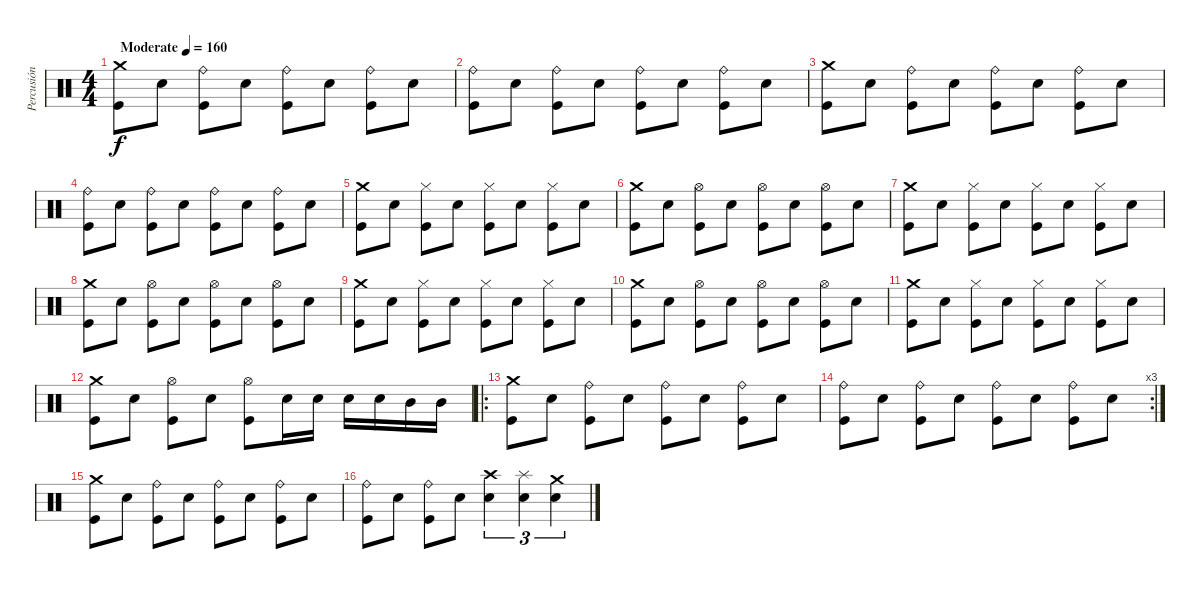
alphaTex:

\track ("Percusión" "Percusión") {instrument percussion}
\staff {score}
\articulation defaults
\ts (4 4)
\tempo (160 "Moderate")
\clef neutral
\ks c
("Kick (hit)" "Crash medium (hit)").8{dy f} "Snare (hit) 2".8 ("Kick (hit)" "Ride (bell)").8 "Snare (hit) 2".8 ("Kick (hit)" "Ride (bell)").8 "Snare (hit) 2".8 ("Kick (hit)" "Ride (bell)").8 "Snare (hit) 2".8 |
("Kick (hit)" "Ride (bell)").8 "Snare (hit) 2".8 ("Kick (hit)" "Ride (bell)").8 "Snare (hit) 2".8 ("Kick (hit)" "Ride (bell)").8 "Snare (hit) 2".8 ("Kick (hit)" "Ride (bell)").8 "Snare (hit) 2".8 |
("Kick (hit)" "Crash medium (hit)").8 "Snare (hit) 2".8 ("Kick (hit)" "Ride (bell)").8 "Snare (hit) 2".8 ("Kick (hit)" "Ride (bell)").8 "Snare (hit) 2".8 ("Kick (hit)" "Ride (bell)").8 "Snare (hit) 2".8 |
("Kick (hit)" "Ride (bell)").8 "Snare (hit) 2".8 ("Kick (hit)" "Ride (bell)").8 "Snare (hit) 2".8 ("Kick (hit)" "Ride (bell)").8 "Snare (hit) 2".8 ("Kick (hit)" "Ride (bell)").8 "Snare (hit) 2".8 |
("Kick (hit)" "Crash medium (hit)").8 "Snare (hit) 2".8 ("Kick (hit)" "Hi-Hat (closed)").8 "Snare (hit) 2".8 ("Kick (hit)" "Hi-Hat (closed)").8 "Snare (hit) 2".8 ("Kick (hit)" "Hi-Hat (closed)").8 "Snare (hit) 2".8 |
("Kick (hit)" "Crash medium (hit)").8 "Snare (hit) 2".8 ("Kick (hit)" "Hi-Hat (open)").8 "Snare (hit) 2".8 ("Kick (hit)" "Hi-Hat (open)").8 "Snare (hit) 2".8 ("Kick (hit)" "Hi-Hat (open)").8 "Snare (hit) 2".8 |
("Kick (hit)" "Crash medium (hit)").8 "Snare (hit) 2".8 ("Kick (hit)" "Hi-Hat (closed)").8 "Snare (hit) 2".8 ("Kick (hit)" "Hi-Hat (closed)").8 "Snare (hit) 2".8 ("Kick (hit)" "Hi-Hat (closed)").8 "Snare (hit) 2".8 |
("Kick (hit)" "Crash medium (hit)").8 "Snare (hit) 2".8 ("Kick (hit)" "Hi-Hat (open)").8 "Snare (hit) 2".8 ("Kick (hit)" "Hi-Hat (open)").8 "Snare (hit) 2".8 ("Kick (hit)" "Hi-Hat (open)").8 "Snare (hit) 2".8 |
("Kick (hit)" "Crash medium (hit)").8 "Snare (hit) 2".8 ("Kick (hit)" "Hi-Hat (closed)").8 "Snare (hit) 2".8 ("Kick (hit)" "Hi-Hat (closed)").8 "Snare (hit) 2".8 ("Kick (hit)" "Hi-Hat (closed)").8 "Snare (hit) 2".8 |
("Kick (hit)" "Crash medium (hit)").8 "Snare (hit) 2".8 ("Kick (hit)" "Hi-Hat (open)").8 "Snare (hit) 2".8 ("Kick (hit)" "Hi-Hat (open)").8 "Snare (hit) 2".8 ("Kick (hit)" "Hi-Hat (open)").8 "Snare (hit) 2".8 |
("Kick (hit)" "Crash medium (hit)").8 "Snare (hit) 2".8 ("Kick (hit)" "Hi-Hat (closed)").8 "Snare (hit) 2".8 ("Kick (hit)" "Hi-Hat (closed)").8 "Snare (hit) 2".8 ("Kick (hit)" "Hi-Hat (closed)").8 "Snare (hit) 2".8 |
("Kick (hit)" "Crash medium (hit)").8 "Snare (hit) 2".8 ("Kick (hit)" "Hi-Hat (open)").8 "Snare (hit) 2".8 ("Kick (hit)" "Hi-Hat (open)").8 "Snare (hit) 2".16 "Snare (hit) 2".16 "Snare (hit) 2".16 "Snare (hit) 2".16 "Mid Tom (hit)".16 "Mid Tom (hit)".16 |
\ro
("Kick (hit)" "Crash medium (hit)").8 "Snare (hit) 2".8 ("Kick (hit)" "Ride (bell)").8 "Snare (hit) 2".8 ("Kick (hit)" "Ride (bell)").8 "Snare (hit) 2".8 ("Kick (hit)" "Ride (bell)").8 "Snare (hit) 2".8 |
\rc 3
("Kick (hit)" "Ride (bell)").8 "Snare (hit) 2".8 ("Kick (hit)" "Ride (bell)").8 "Snare (hit) 2".8 ("Kick (hit)" "Ride (bell)").8 "Snare (hit) 2".8 ("Kick (hit)" "Ride (bell)").8 "Snare (hit) 2".8 |
("Kick (hit)" "Crash medium (hit)").8 "Snare (hit) 2".8 ("Kick (hit)" "Ride (bell)").8 "Snare (hit) 2".8 ("Kick (hit)" "Ride (bell)").8 "Snare (hit) 2".8 ("Kick (hit)" "Ride (bell)").8 "Snare (hit) 2".8 |
("Kick (hit)" "Ride (bell)").8 "Snare (hit) 2".8 ("Kick (hit)" "Ride (bell)").8 "Snare (hit) 2".8 ("Snare (hit) 2" "Crash high (hit)").4{tu (3 2)} ("Snare (hit) 2" "Splash (hit)").4{tu (3 2)} ("Snare (hit) 2" "Crash medium (hit)").4{tu (3 2)}
